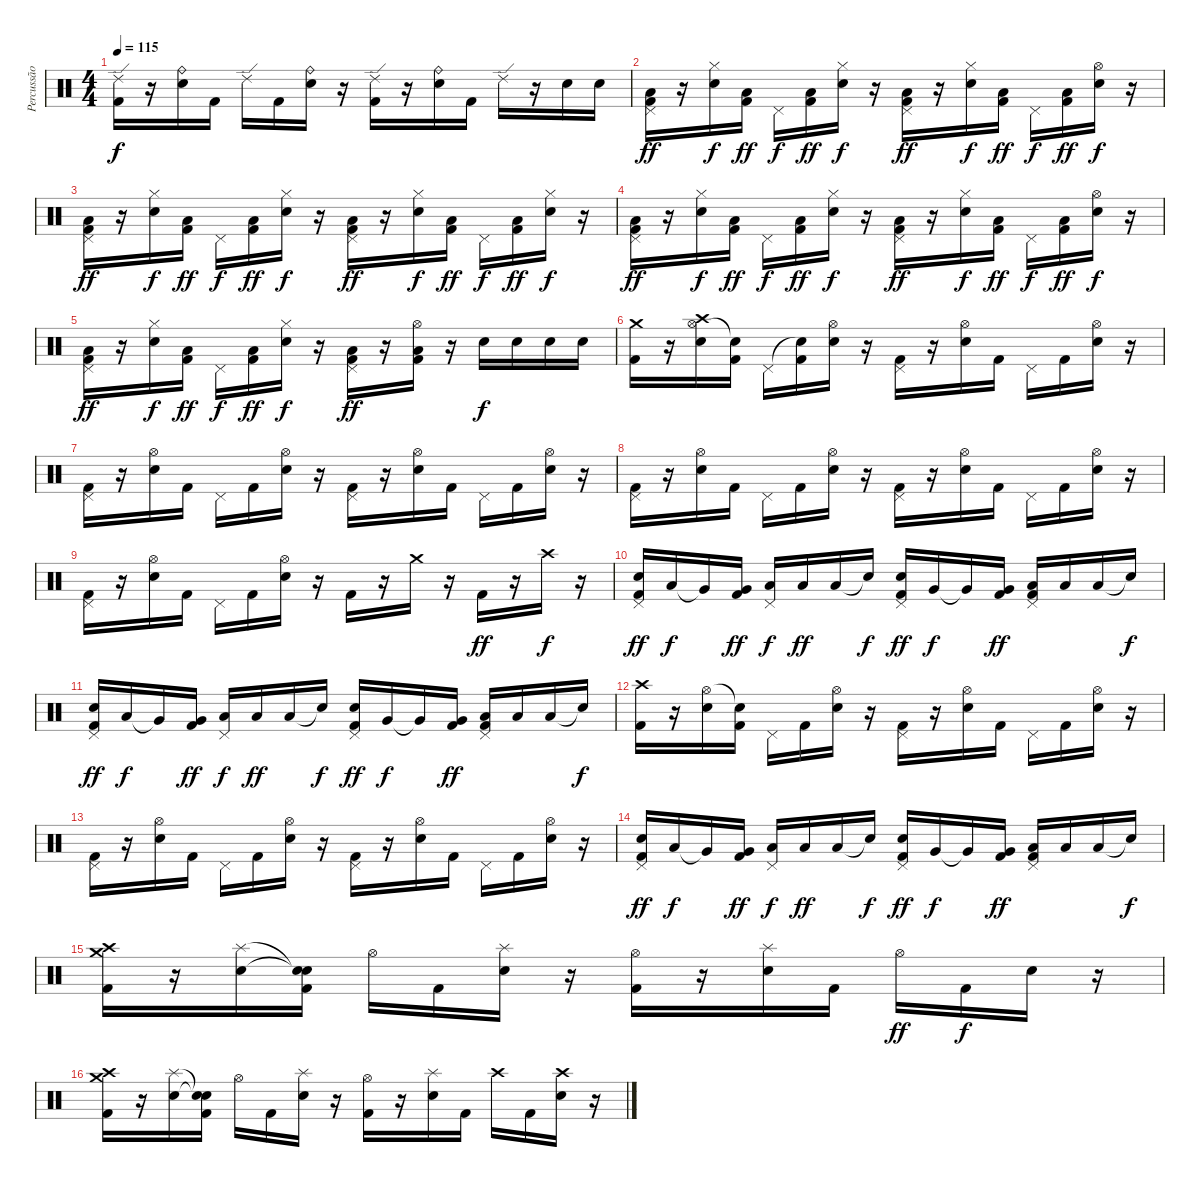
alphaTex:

\track ("Percussão" "Percussão") {instrument percussion}
\staff {score}
\articulation defaults
\ts (4 4)
\tempo 115
\clef neutral
\ks c
("Ride (edge) 2" "Kick (hit) 2").16{dy f} r.16 ("Ride (bell)" "Electric Snare (hit)").16 "Kick (hit) 2".16 "Ride (edge) 2".16 "Kick (hit) 2".16 ("Ride (bell)" "Electric Snare (hit)").16 r.16 ("Ride (edge) 2" "Kick (hit) 2").16 r.16 ("Ride (bell)" "Electric Snare (hit)").16 "Kick (hit) 2".16 "Ride (edge) 2".16 r.16 "Electric Snare (hit)".16 "Electric Snare (hit)".16 |
("Pedal Hi-Hat (hit)" "Low Floor Tom (hit)" "Kick (hit) 2").16{dy ff} r.16 ("Hi-Hat (closed)" "Electric Snare (hit)").16{dy f} ("Low Floor Tom (hit)" "Kick (hit) 2").16{dy ff} "Pedal Hi-Hat (hit)".16{dy f} ("Low Floor Tom (hit)" "Kick (hit) 2").16{dy ff} ("Hi-Hat (closed)" "Electric Snare (hit)").16{dy f} r.16 ("Pedal Hi-Hat (hit)" "Low Floor Tom (hit)" "Kick (hit) 2").16{dy ff} r.16 ("Hi-Hat (closed)" "Electric Snare (hit)").16{dy f} ("Low Floor Tom (hit)" "Kick (hit) 2").16{dy ff} "Pedal Hi-Hat (hit)".16{dy f} ("Low Floor Tom (hit)" "Kick (hit) 2").16{dy ff} ("Hi-Hat (open)" "Electric Snare (hit)").16{dy f} r.16 |
("Pedal Hi-Hat (hit)" "Low Floor Tom (hit)" "Kick (hit) 2").16{dy ff} r.16 ("Hi-Hat (closed)" "Electric Snare (hit)").16{dy f} ("Low Floor Tom (hit)" "Kick (hit) 2").16{dy ff} "Pedal Hi-Hat (hit)".16{dy f} ("Low Floor Tom (hit)" "Kick (hit) 2").16{dy ff} ("Hi-Hat (closed)" "Electric Snare (hit)").16{dy f} r.16 ("Pedal Hi-Hat (hit)" "Low Floor Tom (hit)" "Kick (hit) 2").16{dy ff} r.16 ("Hi-Hat (closed)" "Electric Snare (hit)").16{dy f} ("Low Floor Tom (hit)" "Kick (hit) 2").16{dy ff} "Pedal Hi-Hat (hit)".16{dy f} ("Low Floor Tom (hit)" "Kick (hit) 2").16{dy ff} ("Hi-Hat (closed)" "Electric Snare (hit)").16{dy f} r.16 |
("Pedal Hi-Hat (hit)" "Low Floor Tom (hit)" "Kick (hit) 2").16{dy ff} r.16 ("Hi-Hat (closed)" "Electric Snare (hit)").16{dy f} ("Low Floor Tom (hit)" "Kick (hit) 2").16{dy ff} "Pedal Hi-Hat (hit)".16{dy f} ("Low Floor Tom (hit)" "Kick (hit) 2").16{dy ff} ("Hi-Hat (closed)" "Electric Snare (hit)").16{dy f} r.16 ("Pedal Hi-Hat (hit)" "Low Floor Tom (hit)" "Kick (hit) 2").16{dy ff} r.16 ("Hi-Hat (closed)" "Electric Snare (hit)").16{dy f} ("Low Floor Tom (hit)" "Kick (hit) 2").16{dy ff} "Pedal Hi-Hat (hit)".16{dy f} ("Low Floor Tom (hit)" "Kick (hit) 2").16{dy ff} ("Hi-Hat (open)" "Electric Snare (hit)").16{dy f} r.16 |
("Pedal Hi-Hat (hit)" "Low Floor Tom (hit)" "Kick (hit) 2").16{dy ff} r.16 ("Hi-Hat (closed)" "Electric Snare (hit)").16{dy f} ("Low Floor Tom (hit)" "Kick (hit) 2").16{dy ff} "Pedal Hi-Hat (hit)".16{dy f} ("Low Floor Tom (hit)" "Kick (hit) 2").16{dy ff} ("Hi-Hat (closed)" "Electric Snare (hit)").16{dy f} r.16 ("Pedal Hi-Hat (hit)" "Low Floor Tom (hit)" "Kick (hit) 2").16{dy ff} r.16 ("Hi-Hat (open)" "Low Floor Tom (hit)" "Kick (hit) 2").16 r.16 "Electric Snare (hit)".16{dy f} "Electric Snare (hit)".16 "Electric Snare (hit)".16 "Electric Snare (hit)".16 |
("Crash medium (hit)" "Kick (hit) 2").16 r.16 ("Hi-Hat (open)" "Electric Snare (hit)" "Crash high (hit)").16 ("Snare (hit)"{t} "Kick (hit) 2").16 "Pedal Hi-Hat (hit)".16 ("Snare (hit)"{t} "Kick (hit) 2").16 ("Hi-Hat (open)" "Electric Snare (hit)").16 r.16 ("Pedal Hi-Hat (hit)" "Kick (hit) 2").16 r.16 ("Hi-Hat (open)" "Electric Snare (hit)").16 "Kick (hit) 2".16 "Pedal Hi-Hat (hit)".16 "Kick (hit) 2".16 ("Hi-Hat (open)" "Electric Snare (hit)").16 r.16 |
("Pedal Hi-Hat (hit)" "Kick (hit) 2").16 r.16 ("Hi-Hat (open)" "Electric Snare (hit)").16 "Kick (hit) 2".16 "Pedal Hi-Hat (hit)".16 "Kick (hit) 2".16 ("Hi-Hat (open)" "Electric Snare (hit)").16 r.16 ("Pedal Hi-Hat (hit)" "Kick (hit) 2").16 r.16 ("Hi-Hat (open)" "Electric Snare (hit)").16 "Kick (hit) 2".16 "Pedal Hi-Hat (hit)".16 "Kick (hit) 2".16 ("Hi-Hat (open)" "Electric Snare (hit)").16 r.16 |
("Pedal Hi-Hat (hit)" "Kick (hit) 2").16 r.16 ("Hi-Hat (open)" "Electric Snare (hit)").16 "Kick (hit) 2".16 "Pedal Hi-Hat (hit)".16 "Kick (hit) 2".16 ("Hi-Hat (open)" "Electric Snare (hit)").16 r.16 ("Pedal Hi-Hat (hit)" "Kick (hit) 2").16 r.16 ("Hi-Hat (open)" "Electric Snare (hit)").16 "Kick (hit) 2".16 "Pedal Hi-Hat (hit)".16 "Kick (hit) 2".16 ("Hi-Hat (open)" "Electric Snare (hit)").16 r.16 |
("Pedal Hi-Hat (hit)" "Kick (hit) 2").16 r.16 ("Hi-Hat (open)" "Electric Snare (hit)").16 "Kick (hit) 2".16 "Pedal Hi-Hat (hit)".16 "Kick (hit) 2".16 ("Hi-Hat (open)" "Electric Snare (hit)").16 r.16 "Kick (hit) 2".16 r.16 "Crash medium (hit)".16 r.16 "Kick (hit) 2".16{dy ff} r.16 "Crash high (hit)".16{dy f} r.16 |
("Pedal Hi-Hat (hit)" "Electric Snare (hit)" "Kick (hit) 2").16{dy ff} "Low Tom (hit)".16{dy f} "Very Low Tom (hit)"{t}.16 ("Very Low Tom (hit)" "Kick (hit) 2").16{dy ff} ("Pedal Hi-Hat (hit)" "Low Floor Tom (hit)").16{dy f} "Low Floor Tom (hit)".16{dy ff} "Low Floor Tom (hit)".16 "Electric Snare (hit)"{t}.16{dy f} ("Pedal Hi-Hat (hit)" "Electric Snare (hit)" "Kick (hit) 2").16{dy ff} "Very Low Tom (hit)".16{dy f} "Very Low Tom (hit)"{t}.16 ("Very Low Tom (hit)" "Kick (hit) 2").16{dy ff} ("Pedal Hi-Hat (hit)" "Low Floor Tom (hit)" "Kick (hit) 2").16 "Low Floor Tom (hit)".16 "Low Floor Tom (hit)".16 "Snare (hit)"{t}.16{dy f} |
("Pedal Hi-Hat (hit)" "Electric Snare (hit)" "Kick (hit) 2").16{dy ff} "Low Tom (hit)".16{dy f} "Very Low Tom (hit)"{t}.16 ("Very Low Tom (hit)" "Kick (hit) 2").16{dy ff} ("Pedal Hi-Hat (hit)" "Low Floor Tom (hit)").16{dy f} "Low Floor Tom (hit)".16{dy ff} "Low Floor Tom (hit)".16 "Electric Snare (hit)"{t}.16{dy f} ("Pedal Hi-Hat (hit)" "Electric Snare (hit)" "Kick (hit) 2").16{dy ff} "Very Low Tom (hit)".16{dy f} "Very Low Tom (hit)"{t}.16 ("Very Low Tom (hit)" "Kick (hit) 2").16{dy ff} ("Pedal Hi-Hat (hit)" "Low Floor Tom (hit)" "Kick (hit) 2").16 "Low Floor Tom (hit)".16 "Low Floor Tom (hit)".16 "Snare (hit)"{t}.16{dy f} |
("Crash high (hit)" "Kick (hit) 2").16 r.16 ("Hi-Hat (open)" "Electric Snare (hit)").16 ("Snare (hit)"{t} "Kick (hit) 2").16 "Pedal Hi-Hat (hit)".16 "Kick (hit) 2".16 ("Hi-Hat (open)" "Electric Snare (hit)").16 r.16 ("Pedal Hi-Hat (hit)" "Kick (hit) 2").16 r.16 ("Hi-Hat (open)" "Electric Snare (hit)").16 "Kick (hit) 2".16 "Pedal Hi-Hat (hit)".16 "Kick (hit) 2".16 ("Hi-Hat (open)" "Electric Snare (hit)").16 r.16 |
("Pedal Hi-Hat (hit)" "Kick (hit) 2").16 r.16 ("Hi-Hat (open)" "Electric Snare (hit)").16 "Kick (hit) 2".16 "Pedal Hi-Hat (hit)".16 "Kick (hit) 2".16 ("Hi-Hat (open)" "Electric Snare (hit)").16 r.16 ("Pedal Hi-Hat (hit)" "Kick (hit) 2").16 r.16 ("Hi-Hat (open)" "Electric Snare (hit)").16 "Kick (hit) 2".16 "Pedal Hi-Hat (hit)".16 "Kick (hit) 2".16 ("Hi-Hat (open)" "Electric Snare (hit)").16 r.16 |
("Pedal Hi-Hat (hit)" "Electric Snare (hit)" "Kick (hit) 2").16{dy ff} "Low Tom (hit)".16{dy f} "Very Low Tom (hit)"{t}.16 ("Very Low Tom (hit)" "Kick (hit) 2").16{dy ff} ("Pedal Hi-Hat (hit)" "Low Floor Tom (hit)").16{dy f} "Low Floor Tom (hit)".16{dy ff} "Low Floor Tom (hit)".16 "Electric Snare (hit)"{t}.16{dy f} ("Pedal Hi-Hat (hit)" "Electric Snare (hit)" "Kick (hit) 2").16{dy ff} "Very Low Tom (hit)".16{dy f} "Very Low Tom (hit)"{t}.16 ("Very Low Tom (hit)" "Kick (hit) 2").16{dy ff} ("Pedal Hi-Hat (hit)" "Low Floor Tom (hit)" "Kick (hit) 2").16 "Low Floor Tom (hit)".16 "Low Floor Tom (hit)".16 "Snare (hit)"{t}.16{dy f} |
("Crash medium (hit)" "Crash high (hit)" "Kick (hit) 2").16 r.16 ("Splash (hit)" "Electric Snare (hit)").16 ("Snare (hit)"{t} "Snare (hit)"{t} "Kick (hit) 2").16 "Hi-Hat (open)".16 "Kick (hit) 2".16 ("Splash (hit)" "Electric Snare (hit)").16 r.16 ("Hi-Hat (open)" "Kick (hit) 2").16 r.16 ("Splash (hit)" "Electric Snare (hit)").16 "Kick (hit) 2".16 "Hi-Hat (open)".16{dy ff} "Kick (hit) 2".16{dy f} "Electric Snare (hit)".16 r.16 |
("Crash medium (hit)" "Crash high (hit)" "Kick (hit) 2").16 r.16 ("Splash (hit)" "Electric Snare (hit)").16 ("Snare (hit)"{t} "Snare (hit)"{t} "Kick (hit) 2").16 "Hi-Hat (open)".16 "Kick (hit) 2".16 ("Splash (hit)" "Electric Snare (hit)").16 r.16 ("Hi-Hat (open)" "Kick (hit) 2").16 r.16 ("Splash (hit)" "Electric Snare (hit)").16 "Kick (hit) 2".16 "Crash high (hit)".16 "Kick (hit) 2".16 ("Crash high (hit)" "Electric Snare (hit)").16 r.16
